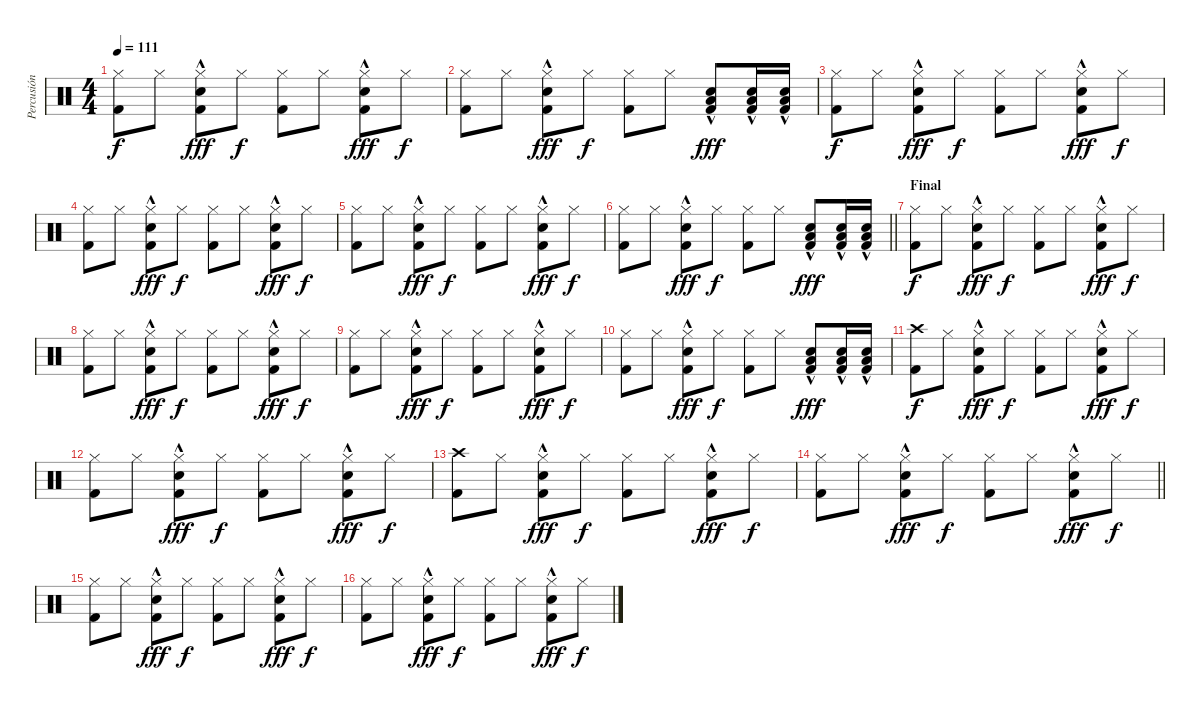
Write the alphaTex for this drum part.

\track ("Percusión" "Percusión") {instrument percussion}
\staff {score}
\articulation defaults
\ts (4 4)
\tempo 111
\clef neutral
\ks c
("Hi-Hat (closed)" "Kick (hit) 2").8{dy f} "Hi-Hat (closed)".8 ("Electric Snare (hit)"{hac} "Hi-Hat (closed)"{hac} "Kick (hit) 2"{hac}).8{dy fff} "Hi-Hat (closed)".8{dy f} ("Hi-Hat (closed)" "Kick (hit) 2").8 "Hi-Hat (closed)".8 ("Electric Snare (hit)"{hac} "Hi-Hat (closed)"{hac} "Kick (hit) 2"{hac}).8{dy fff} "Hi-Hat (closed)".8{dy f} |
("Hi-Hat (closed)" "Kick (hit) 2").8 "Hi-Hat (closed)".8 ("Electric Snare (hit)"{hac} "Hi-Hat (closed)"{hac} "Kick (hit) 2"{hac}).8{dy fff} "Hi-Hat (closed)".8{dy f} ("Hi-Hat (closed)" "Kick (hit) 2").8 "Hi-Hat (closed)".8 ("Snare (hit) 2"{hac} "Low Floor Tom (hit)"{hac} "Kick (hit) 2"{hac}).8{dy fff} ("Snare (hit) 2"{hac} "Low Floor Tom (hit)"{hac} "Kick (hit) 2"{hac}).16 ("Snare (hit) 2"{hac} "Low Floor Tom (hit)"{hac} "Kick (hit) 2"{hac}).16 |
("Hi-Hat (closed)" "Kick (hit) 2").8{dy f} "Hi-Hat (closed)".8 ("Electric Snare (hit)"{hac} "Hi-Hat (closed)"{hac} "Kick (hit) 2"{hac}).8{dy fff} "Hi-Hat (closed)".8{dy f} ("Hi-Hat (closed)" "Kick (hit) 2").8 "Hi-Hat (closed)".8 ("Electric Snare (hit)"{hac} "Hi-Hat (closed)"{hac} "Kick (hit) 2"{hac}).8{dy fff} "Hi-Hat (closed)".8{dy f} |
("Hi-Hat (closed)" "Kick (hit) 2").8 "Hi-Hat (closed)".8 ("Electric Snare (hit)"{hac} "Hi-Hat (closed)"{hac} "Kick (hit) 2"{hac}).8{dy fff} "Hi-Hat (closed)".8{dy f} ("Hi-Hat (closed)" "Kick (hit) 2").8 "Hi-Hat (closed)".8 ("Electric Snare (hit)"{hac} "Hi-Hat (closed)"{hac} "Kick (hit) 2"{hac}).8{dy fff} "Hi-Hat (closed)".8{dy f} |
("Hi-Hat (closed)" "Kick (hit) 2").8 "Hi-Hat (closed)".8 ("Electric Snare (hit)"{hac} "Hi-Hat (closed)"{hac} "Kick (hit) 2"{hac}).8{dy fff} "Hi-Hat (closed)".8{dy f} ("Hi-Hat (closed)" "Kick (hit) 2").8 "Hi-Hat (closed)".8 ("Electric Snare (hit)"{hac} "Hi-Hat (closed)"{hac} "Kick (hit) 2"{hac}).8{dy fff} "Hi-Hat (closed)".8{dy f} |
\barLineRight lightlight
("Hi-Hat (closed)" "Kick (hit) 2").8 "Hi-Hat (closed)".8 ("Electric Snare (hit)"{hac} "Hi-Hat (closed)"{hac} "Kick (hit) 2"{hac}).8{dy fff} "Hi-Hat (closed)".8{dy f} ("Hi-Hat (closed)" "Kick (hit) 2").8 "Hi-Hat (closed)".8 ("Snare (hit) 2"{hac} "Low Floor Tom (hit)"{hac} "Kick (hit) 2"{hac}).8{dy fff} ("Snare (hit) 2"{hac} "Low Floor Tom (hit)"{hac} "Kick (hit) 2"{hac}).16 ("Snare (hit) 2"{hac} "Low Floor Tom (hit)"{hac} "Kick (hit) 2"{hac}).16 |
\section ("" "Final")
("Hi-Hat (closed)" "Kick (hit) 2").8{dy f} "Hi-Hat (closed)".8 ("Electric Snare (hit)"{hac} "Hi-Hat (closed)"{hac} "Kick (hit) 2"{hac}).8{dy fff} "Hi-Hat (closed)".8{dy f} ("Hi-Hat (closed)" "Kick (hit) 2").8 "Hi-Hat (closed)".8 ("Electric Snare (hit)"{hac} "Hi-Hat (closed)"{hac} "Kick (hit) 2"{hac}).8{dy fff} "Hi-Hat (closed)".8{dy f} |
("Hi-Hat (closed)" "Kick (hit) 2").8 "Hi-Hat (closed)".8 ("Electric Snare (hit)"{hac} "Hi-Hat (closed)"{hac} "Kick (hit) 2"{hac}).8{dy fff} "Hi-Hat (closed)".8{dy f} ("Hi-Hat (closed)" "Kick (hit) 2").8 "Hi-Hat (closed)".8 ("Electric Snare (hit)"{hac} "Hi-Hat (closed)"{hac} "Kick (hit) 2"{hac}).8{dy fff} "Hi-Hat (closed)".8{dy f} |
("Hi-Hat (closed)" "Kick (hit) 2").8 "Hi-Hat (closed)".8 ("Electric Snare (hit)"{hac} "Hi-Hat (closed)"{hac} "Kick (hit) 2"{hac}).8{dy fff} "Hi-Hat (closed)".8{dy f} ("Hi-Hat (closed)" "Kick (hit) 2").8 "Hi-Hat (closed)".8 ("Electric Snare (hit)"{hac} "Hi-Hat (closed)"{hac} "Kick (hit) 2"{hac}).8{dy fff} "Hi-Hat (closed)".8{dy f} |
("Hi-Hat (closed)" "Kick (hit) 2").8 "Hi-Hat (closed)".8 ("Electric Snare (hit)"{hac} "Hi-Hat (closed)"{hac} "Kick (hit) 2"{hac}).8{dy fff} "Hi-Hat (closed)".8{dy f} ("Hi-Hat (closed)" "Kick (hit) 2").8 "Hi-Hat (closed)".8 ("Snare (hit) 2"{hac} "Low Floor Tom (hit)"{hac} "Kick (hit) 2"{hac}).8{dy fff} ("Snare (hit) 2"{hac} "Low Floor Tom (hit)"{hac} "Kick (hit) 2"{hac}).16 ("Snare (hit) 2"{hac} "Low Floor Tom (hit)"{hac} "Kick (hit) 2"{hac}).16 |
("Crash high (hit)" "Kick (hit) 2").8{dy f} "Hi-Hat (closed)".8 ("Electric Snare (hit)"{hac} "Hi-Hat (closed)"{hac} "Kick (hit) 2"{hac}).8{dy fff} "Hi-Hat (closed)".8{dy f} ("Hi-Hat (closed)" "Kick (hit) 2").8 "Hi-Hat (closed)".8 ("Electric Snare (hit)"{hac} "Hi-Hat (closed)"{hac} "Kick (hit) 2"{hac}).8{dy fff} "Hi-Hat (closed)".8{dy f} |
("Hi-Hat (closed)" "Kick (hit) 2").8 "Hi-Hat (closed)".8 ("Electric Snare (hit)"{hac} "Hi-Hat (closed)"{hac} "Kick (hit) 2"{hac}).8{dy fff} "Hi-Hat (closed)".8{dy f} ("Hi-Hat (closed)" "Kick (hit) 2").8 "Hi-Hat (closed)".8 ("Electric Snare (hit)"{hac} "Hi-Hat (closed)"{hac} "Kick (hit) 2"{hac}).8{dy fff} "Hi-Hat (closed)".8{dy f} |
("Crash high (hit)" "Kick (hit) 2").8 "Hi-Hat (closed)".8 ("Electric Snare (hit)"{hac} "Hi-Hat (closed)"{hac} "Kick (hit) 2"{hac}).8{dy fff} "Hi-Hat (closed)".8{dy f} ("Hi-Hat (closed)" "Kick (hit) 2").8 "Hi-Hat (closed)".8 ("Electric Snare (hit)"{hac} "Hi-Hat (closed)"{hac} "Kick (hit) 2"{hac}).8{dy fff} "Hi-Hat (closed)".8{dy f} |
\barLineRight lightlight
("Hi-Hat (closed)" "Kick (hit) 2").8 "Hi-Hat (closed)".8 ("Electric Snare (hit)"{hac} "Hi-Hat (closed)"{hac} "Kick (hit) 2"{hac}).8{dy fff} "Hi-Hat (closed)".8{dy f} ("Hi-Hat (closed)" "Kick (hit) 2").8 "Hi-Hat (closed)".8 ("Electric Snare (hit)"{hac} "Hi-Hat (closed)"{hac} "Kick (hit) 2"{hac}).8{dy fff} "Hi-Hat (closed)".8{dy f} |
("Hi-Hat (closed)" "Kick (hit) 2").8 "Hi-Hat (closed)".8 ("Electric Snare (hit)"{hac} "Hi-Hat (closed)"{hac} "Kick (hit) 2"{hac}).8{dy fff} "Hi-Hat (closed)".8{dy f} ("Hi-Hat (closed)" "Kick (hit) 2").8 "Hi-Hat (closed)".8 ("Electric Snare (hit)"{hac} "Hi-Hat (closed)"{hac} "Kick (hit) 2"{hac}).8{dy fff} "Hi-Hat (closed)".8{dy f} |
("Hi-Hat (closed)" "Kick (hit) 2").8 "Hi-Hat (closed)".8 ("Electric Snare (hit)"{hac} "Hi-Hat (closed)"{hac} "Kick (hit) 2"{hac}).8{dy fff} "Hi-Hat (closed)".8{dy f} ("Hi-Hat (closed)" "Kick (hit) 2").8 "Hi-Hat (closed)".8 ("Electric Snare (hit)"{hac} "Hi-Hat (closed)"{hac} "Kick (hit) 2"{hac}).8{dy fff} "Hi-Hat (closed)".8{dy f}
